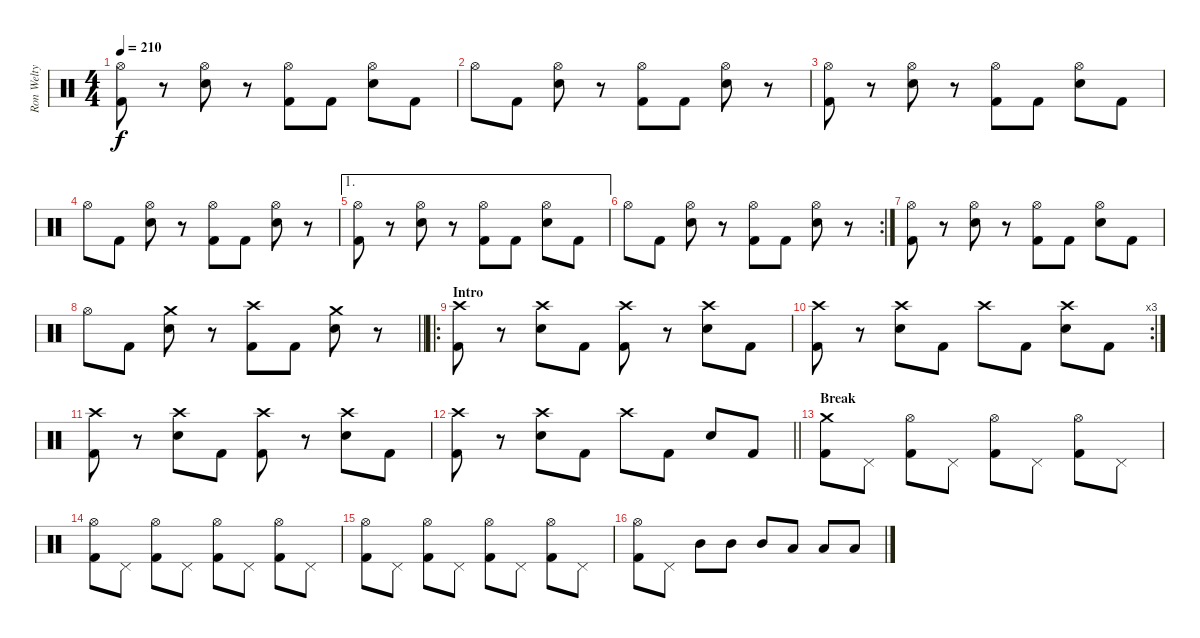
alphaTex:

\track ("Ron Welty" "Ron Welty") {instrument percussion}
\staff {score}
\articulation defaults
\ts (4 4)
\tempo 210
\clef neutral
\ks c
("Hi-Hat (open)" "Kick (hit) 2").8{dy f} r.8 ("Hi-Hat (open)" "Electric Snare (hit)").8 r.8 ("Hi-Hat (open)" "Kick (hit) 2").8 "Kick (hit) 2".8 ("Hi-Hat (open)" "Electric Snare (hit)").8 "Kick (hit) 2".8 |
"Hi-Hat (open)".8 "Kick (hit) 2".8 ("Hi-Hat (open)" "Electric Snare (hit)").8 r.8 ("Hi-Hat (open)" "Kick (hit) 2").8 "Kick (hit) 2".8 ("Hi-Hat (open)" "Electric Snare (hit)").8 r.8 |
("Hi-Hat (open)" "Kick (hit) 2").8 r.8 ("Hi-Hat (open)" "Electric Snare (hit)").8 r.8 ("Hi-Hat (open)" "Kick (hit) 2").8 "Kick (hit) 2".8 ("Hi-Hat (open)" "Electric Snare (hit)").8 "Kick (hit) 2".8 |
"Hi-Hat (open)".8 "Kick (hit) 2".8 ("Hi-Hat (open)" "Electric Snare (hit)").8 r.8 ("Hi-Hat (open)" "Kick (hit) 2").8 "Kick (hit) 2".8 ("Hi-Hat (open)" "Electric Snare (hit)").8 r.8 |
\ae 1
("Hi-Hat (open)" "Kick (hit) 2").8 r.8 ("Hi-Hat (open)" "Electric Snare (hit)").8 r.8 ("Hi-Hat (open)" "Kick (hit) 2").8 "Kick (hit) 2".8 ("Hi-Hat (open)" "Electric Snare (hit)").8 "Kick (hit) 2".8 |
\rc 2 "Hi-Hat (open)".8 "Kick (hit) 2".8
("Hi-Hat (open)" "Electric Snare (hit)").8 r.8 ("Hi-Hat (open)" "Kick (hit) 2").8 "Kick (hit) 2".8 ("Hi-Hat (open)" "Electric Snare (hit)").8 r.8 |
("Hi-Hat (open)" "Kick (hit) 2").8 r.8 ("Hi-Hat (open)" "Electric Snare (hit)").8 r.8 ("Hi-Hat (open)" "Kick (hit) 2").8 "Kick (hit) 2".8 ("Hi-Hat (open)" "Electric Snare (hit)").8 "Kick (hit) 2".8 |
\barLineRight lightlight "Hi-Hat (open)".8 "Kick (hit) 2".8
("Crash medium (hit)" "Electric Snare (hit)").8 r.8 ("Crash high (hit)" "Kick (hit) 2").8 "Kick (hit) 2".8 ("Crash medium (hit)" "Electric Snare (hit)").8 r.8 |
\ro
\section ("" "Intro")
("Crash high (hit)" "Kick (hit) 2").8 r.8 ("Crash high (hit)" "Electric Snare (hit)").8 "Kick (hit) 2".8 ("Crash high (hit)" "Kick (hit) 2").8 r.8 ("Crash high (hit)" "Electric Snare (hit)").8 "Kick (hit) 2".8 |
\rc 3
("Crash high (hit)" "Kick (hit) 2").8 r.8 ("Crash high (hit)" "Electric Snare (hit)").8 "Kick (hit) 2".8 "Crash high (hit)".8 "Kick (hit) 2".8 ("Crash high (hit)" "Electric Snare (hit)").8 "Kick (hit) 2".8 |
("Crash high (hit)" "Kick (hit) 2").8 r.8 ("Crash high (hit)" "Electric Snare (hit)").8 "Kick (hit) 2".8 ("Crash high (hit)" "Kick (hit) 2").8 r.8 ("Crash high (hit)" "Electric Snare (hit)").8 "Kick (hit) 2".8 |
\barLineRight lightlight
("Crash high (hit)" "Kick (hit) 2").8 r.8 ("Crash high (hit)" "Electric Snare (hit)").8 "Kick (hit) 2".8 "Crash high (hit)".8 "Kick (hit) 2".8 "Electric Snare (hit)".8 "Kick (hit) 2".8 |
\section ("" "Break")
("Crash medium (hit)" "Kick (hit) 2").8 "Pedal Hi-Hat (hit)".8 ("Hi-Hat (open)" "Kick (hit) 2").8 "Pedal Hi-Hat (hit)".8 ("Hi-Hat (open)" "Kick (hit) 2").8 "Pedal Hi-Hat (hit)".8 ("Hi-Hat (open)" "Kick (hit) 2").8 "Pedal Hi-Hat (hit)".8 |
("Hi-Hat (open)" "Kick (hit) 2").8 "Pedal Hi-Hat (hit)".8 ("Hi-Hat (open)" "Kick (hit) 2").8 "Pedal Hi-Hat (hit)".8 ("Hi-Hat (open)" "Kick (hit) 2").8 "Pedal Hi-Hat (hit)".8 ("Hi-Hat (open)" "Kick (hit) 2").8 "Pedal Hi-Hat (hit)".8 |
("Hi-Hat (open)" "Kick (hit) 2").8 "Pedal Hi-Hat (hit)".8 ("Hi-Hat (open)" "Kick (hit) 2").8 "Pedal Hi-Hat (hit)".8 ("Hi-Hat (open)" "Kick (hit) 2").8 "Pedal Hi-Hat (hit)".8 ("Hi-Hat (open)" "Kick (hit) 2").8 "Pedal Hi-Hat (hit)".8 |
("Hi-Hat (open)" "Kick (hit) 2").8 "Pedal Hi-Hat (hit)".8 "Mid Tom (hit)".8 "Mid Tom (hit)".8 "Mid Tom (hit)".8 "Low Tom (hit)".8 "Low Tom (hit)".8 "Low Floor Tom (hit)".8
